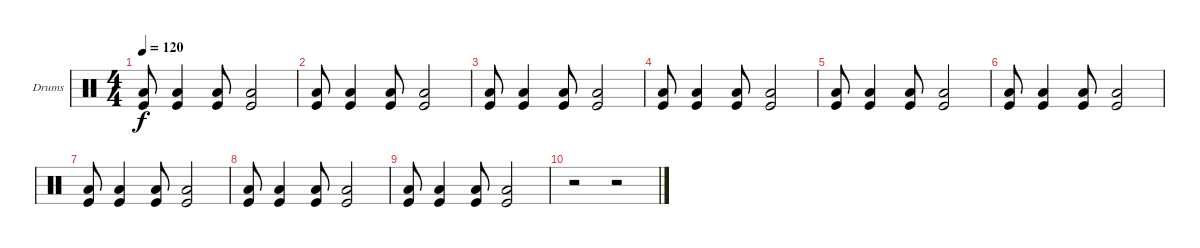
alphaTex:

\bracketExtendMode groupsimilarinstruments
\firstSystemTrackNameOrientation horizontal
\otherSystemsTrackNameOrientation horizontal
\track ("Drumkit" "Drums") {instrument percussion}
\staff {score}
\articulation defaults
\ts (4 4)
\tempo 120
\clef neutral
\ks c
("Low Tom (hit)" "Kick (hit)").8{dy f} ("Low Tom (hit)" "Kick (hit)").4 ("Low Tom (hit)" "Kick (hit)").8 ("Low Tom (hit)" "Kick (hit)").2 |
("Low Tom (hit)" "Kick (hit)").8 ("Low Tom (hit)" "Kick (hit)").4 ("Low Tom (hit)" "Kick (hit)").8 ("Low Tom (hit)" "Kick (hit)").2 |
("Low Tom (hit)" "Kick (hit)").8 ("Low Tom (hit)" "Kick (hit)").4 ("Low Tom (hit)" "Kick (hit)").8 ("Low Tom (hit)" "Kick (hit)").2 |
("Low Tom (hit)" "Kick (hit)").8 ("Low Tom (hit)" "Kick (hit)").4 ("Low Tom (hit)" "Kick (hit)").8 ("Low Tom (hit)" "Kick (hit)").2 |
("Low Tom (hit)" "Kick (hit)").8 ("Low Tom (hit)" "Kick (hit)").4 ("Low Tom (hit)" "Kick (hit)").8 ("Low Tom (hit)" "Kick (hit)").2 |
("Low Tom (hit)" "Kick (hit)").8 ("Low Tom (hit)" "Kick (hit)").4 ("Low Tom (hit)" "Kick (hit)").8 ("Low Tom (hit)" "Kick (hit)").2 |
("Low Tom (hit)" "Kick (hit)").8 ("Low Tom (hit)" "Kick (hit)").4 ("Low Tom (hit)" "Kick (hit)").8 ("Low Tom (hit)" "Kick (hit)").2 |
("Low Tom (hit)" "Kick (hit)").8 ("Low Tom (hit)" "Kick (hit)").4 ("Low Tom (hit)" "Kick (hit)").8 ("Low Tom (hit)" "Kick (hit)").2 |
("Low Tom (hit)" "Kick (hit)").8 ("Low Tom (hit)" "Kick (hit)").4 ("Low Tom (hit)" "Kick (hit)").8 ("Low Tom (hit)" "Kick (hit)").2 |
r.2 r.2
